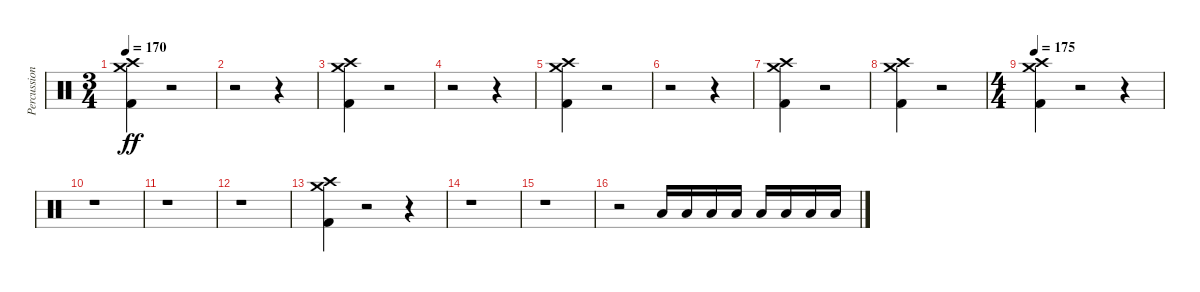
\track ("Percussion" "Percussion") {instrument percussion}
\staff {score}
\articulation defaults
\ts (3 4)
\tempo 170
\clef neutral
\ks c
("Kick (hit) 2" "Crash medium (hit)" "Crash high (hit)").4{dy ff} r.2 |
r.2 r.4 |
("Kick (hit) 2" "Crash medium (hit)" "Crash high (hit)").4 r.2 |
r.2 r.4 |
("Kick (hit) 2" "Crash medium (hit)" "Crash high (hit)").4 r.2 |
r.2 r.4 |
("Kick (hit) 2" "Crash medium (hit)" "Crash high (hit)").4 r.2 |
("Kick (hit) 2" "Crash medium (hit)" "Crash high (hit)").4 r.2 |
\ts (4 4)
\tempo 175
("Kick (hit) 2" "Crash medium (hit)" "Crash high (hit)").4 r.2 r.4 |
r.1 |
r.1 |
r.1 |
("Kick (hit) 2" "Crash medium (hit)" "Crash high (hit)").4 r.2 r.4 |
r.1 |
r.1 |
r.2 "Low Tom (hit)".16 "Low Tom (hit)".16 "Low Tom (hit)".16 "Low Tom (hit)".16 "Low Floor Tom (hit)".16 "Low Floor Tom (hit)".16 "Low Floor Tom (hit)".16 "Low Floor Tom (hit)".16
